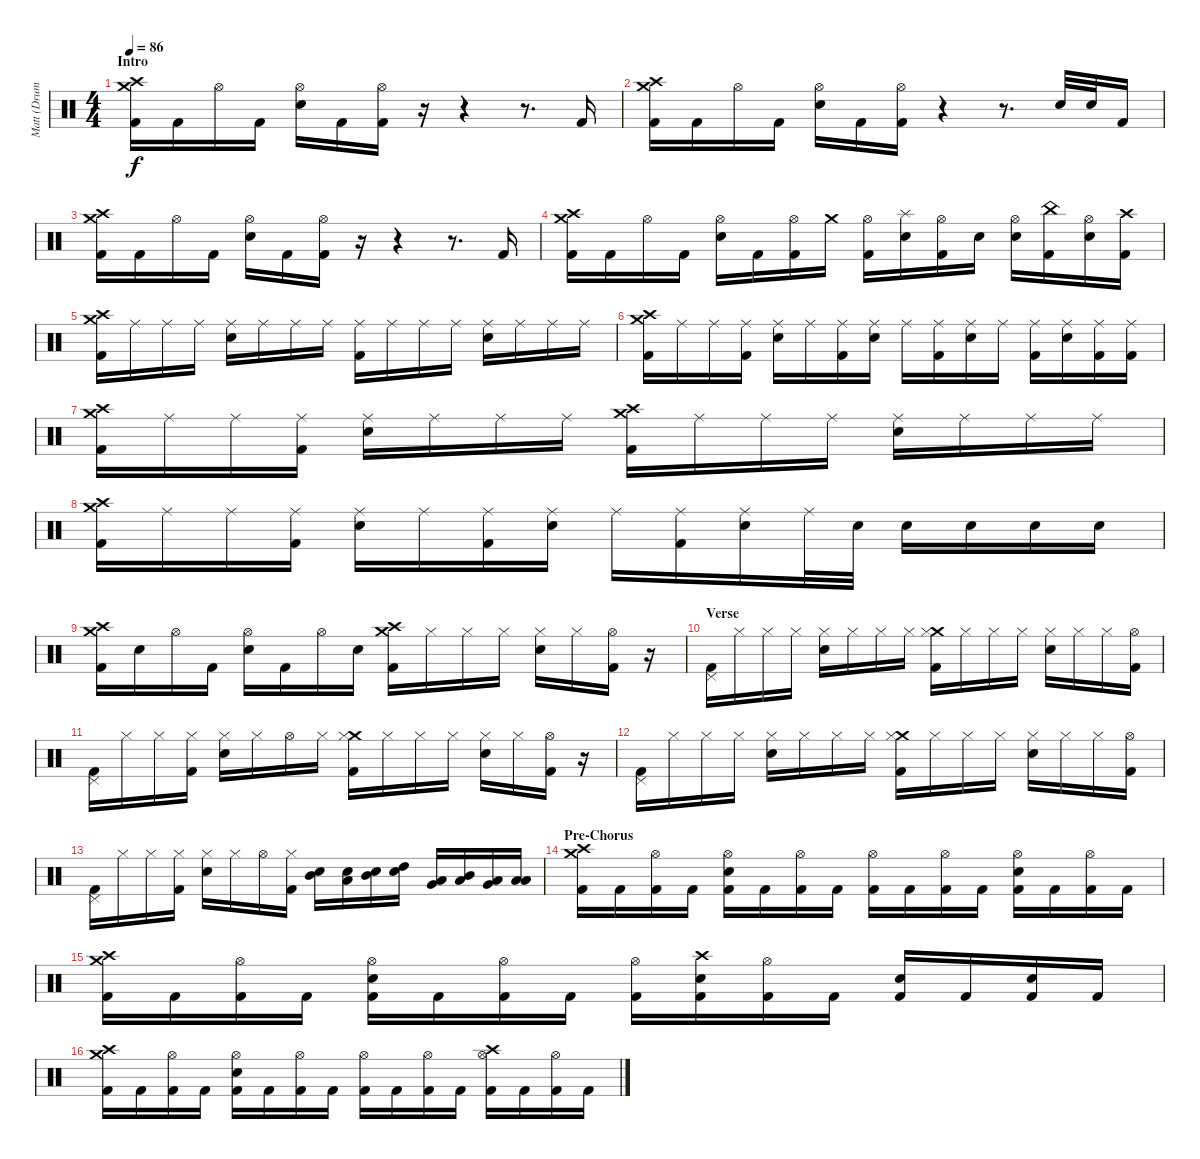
\track ("Matt (Drums)" "Matt (Drum") {instrument percussion}
\staff {score}
\articulation defaults
\ts (4 4)
\section ("" "Intro")
\tempo 86
\clef neutral
\ks c
("Crash medium (hit)" "Crash high (hit)" "Kick (hit) 2").16{dy f} "Kick (hit) 2".16 "Hi-Hat (open)".16 "Kick (hit) 2".16 ("Hi-Hat (open)" "Snare (hit) 2").16 "Kick (hit) 2".16 ("Hi-Hat (open)" "Kick (hit) 2").16 r.16 r.4 r.8{d} "Kick (hit) 2".16 |
("Crash medium (hit)" "Crash high (hit)" "Kick (hit) 2").16 "Kick (hit) 2".16 "Hi-Hat (open)".16 "Kick (hit) 2".16 ("Hi-Hat (open)" "Snare (hit) 2").16 "Kick (hit) 2".16 ("Hi-Hat (open)" "Kick (hit) 2").16 r.4 r.8{d} "Snare (hit) 2".32 "Snare (hit) 2".32 "Kick (hit) 2".16 |
("Crash medium (hit)" "Crash high (hit)" "Kick (hit) 2").16 "Kick (hit) 2".16 "Hi-Hat (open)".16 "Kick (hit) 2".16 ("Hi-Hat (open)" "Snare (hit) 2").16 "Kick (hit) 2".16 ("Hi-Hat (open)" "Kick (hit) 2").16 r.16 r.4 r.8{d} "Kick (hit) 2".16 |
("Crash medium (hit)" "Crash high (hit)" "Kick (hit) 2").16 "Kick (hit) 2".16 "Hi-Hat (open)".16 "Kick (hit) 2".16 ("Hi-Hat (open)" "Snare (hit) 2").16 "Kick (hit) 2".16 ("Hi-Hat (open)" "Kick (hit) 2").16 "Crash medium (hit)".16 ("Hi-Hat (open)" "Kick (hit) 2").16 ("Splash (hit)" "Snare (hit) 2").16 ("Hi-Hat (open)" "Kick (hit) 2").16 "Snare (hit) 2".16 ("Hi-Hat (open)" "Snare (hit) 2").16 ("China (hit)" "Kick (hit) 2").16 ("Hi-Hat (open)" "Snare (hit) 2").16 ("Crash high (hit)" "Kick (hit) 2").16 |
("Crash medium (hit)" "Crash high (hit)" "Kick (hit) 2").16 "Ride (middle)".16 "Ride (middle)".16 "Ride (middle)".16 ("Ride (middle)" "Snare (hit) 2").16 "Ride (middle)".16 "Ride (middle)".16 "Ride (middle)".16 ("Ride (middle)" "Kick (hit) 2").16 "Ride (middle)".16 "Ride (middle)".16 "Ride (middle)".16 ("Ride (middle)" "Snare (hit) 2").16 "Ride (middle)".16 "Ride (middle)".16 "Ride (middle)".16 |
("Crash medium (hit)" "Crash high (hit)" "Kick (hit) 2").16 "Ride (middle)".16 "Ride (middle)".16 ("Ride (middle)" "Kick (hit) 2").16 ("Ride (middle)" "Snare (hit) 2").16 "Ride (middle)".16 ("Ride (middle)" "Kick (hit) 2").16 ("Ride (middle)" "Snare (hit) 2").16 "Ride (middle)".16 ("Ride (middle)" "Kick (hit) 2").16 ("Ride (middle)" "Snare (hit) 2").16 "Ride (middle)".16 ("Ride (middle)" "Kick (hit) 2").16 ("Ride (middle)" "Snare (hit) 2").16 ("Ride (middle)" "Kick (hit) 2").16 ("Ride (middle)" "Kick (hit) 2").16 |
("Crash medium (hit)" "Crash high (hit)" "Kick (hit) 2").16 "Ride (middle)".16 "Ride (middle)".16 ("Ride (middle)" "Kick (hit) 2").16 ("Ride (middle)" "Snare (hit) 2").16 "Ride (middle)".16 "Ride (middle)".16 "Ride (middle)".16 ("Crash medium (hit)" "Crash high (hit)" "Kick (hit) 2").16 "Ride (middle)".16 "Ride (middle)".16 "Ride (middle)".16 ("Ride (middle)" "Snare (hit) 2").16 "Ride (middle)".16 "Ride (middle)".16 "Ride (middle)".16 |
("Crash medium (hit)" "Crash high (hit)" "Kick (hit) 2").16 "Ride (middle)".16 "Ride (middle)".16 ("Ride (middle)" "Kick (hit) 2").16 ("Ride (middle)" "Snare (hit) 2").16 "Ride (middle)".16 ("Ride (middle)" "Kick (hit) 2").16 ("Ride (middle)" "Snare (hit) 2").16 "Ride (middle)".16 ("Ride (middle)" "Kick (hit) 2").16 ("Ride (middle)" "Snare (hit) 2").16 "Ride (middle)".32 "Snare (hit) 2".32 "Snare (hit) 2".16 "Snare (hit) 2".16 "Snare (hit) 2".16 "Snare (hit) 2".16 |
("Crash medium (hit)" "Crash high (hit)" "Kick (hit) 2").16 "Snare (hit) 2".16 "Hi-Hat (open)".16 "Kick (hit) 2".16 ("Hi-Hat (open)" "Snare (hit) 2").16 "Kick (hit) 2".16 "Hi-Hat (open)".16 "Snare (hit) 2".16 ("Crash medium (hit)" "Crash high (hit)" "Kick (hit) 2").16 "Hi-Hat (closed)".16 "Hi-Hat (closed)".16 "Hi-Hat (closed)".16 ("Hi-Hat (closed)" "Snare (hit) 2").16 "Hi-Hat (closed)".16 ("Hi-Hat (open)" "Kick (hit) 2").16 r.16 |
\section ("" "Verse")
("Pedal Hi-Hat (hit)" "Kick (hit) 2").16 "Hi-Hat (closed)".16 "Hi-Hat (closed)".16 "Hi-Hat (closed)".16 ("Hi-Hat (closed)" "Snare (hit) 2").16 "Hi-Hat (closed)".16 "Hi-Hat (closed)".16 "Hi-Hat (closed)".16 ("Crash medium (hit)" "Hi-Hat (closed)" "Kick (hit) 2").16 "Hi-Hat (closed)".16 "Hi-Hat (closed)".16 "Hi-Hat (closed)".16 ("Hi-Hat (closed)" "Snare (hit) 2").16 "Hi-Hat (closed)".16 "Hi-Hat (closed)".16 ("Hi-Hat (open)" "Kick (hit) 2").16 |
("Pedal Hi-Hat (hit)" "Kick (hit) 2").16 "Hi-Hat (closed)".16 "Hi-Hat (closed)".16 ("Hi-Hat (closed)" "Kick (hit) 2").16 ("Hi-Hat (closed)" "Snare (hit) 2").16 "Hi-Hat (closed)".16 "Hi-Hat (open)".16 "Hi-Hat (closed)".16 ("Crash medium (hit)" "Hi-Hat (closed)" "Kick (hit) 2").16 "Hi-Hat (closed)".16 "Hi-Hat (closed)".16 "Hi-Hat (closed)".16 ("Hi-Hat (closed)" "Snare (hit) 2").16 "Hi-Hat (closed)".16 ("Hi-Hat (open)" "Kick (hit) 2").16 r.16 |
("Pedal Hi-Hat (hit)" "Kick (hit) 2").16 "Hi-Hat (closed)".16 "Hi-Hat (closed)".16 "Hi-Hat (closed)".16 ("Hi-Hat (closed)" "Snare (hit) 2").16 "Hi-Hat (closed)".16 "Hi-Hat (closed)".16 "Hi-Hat (closed)".16 ("Crash medium (hit)" "Hi-Hat (closed)" "Kick (hit) 2").16 "Hi-Hat (closed)".16 "Hi-Hat (closed)".16 "Hi-Hat (closed)".16 ("Hi-Hat (closed)" "Snare (hit) 2").16 "Hi-Hat (closed)".16 "Hi-Hat (closed)".16 ("Hi-Hat (open)" "Kick (hit) 2").16 |
("Pedal Hi-Hat (hit)" "Kick (hit) 2").16 "Hi-Hat (closed)".16 "Hi-Hat (closed)".16 ("Hi-Hat (closed)" "Kick (hit) 2").16 ("Hi-Hat (closed)" "Snare (hit) 2").16 "Hi-Hat (closed)".16 "Hi-Hat (open)".16 ("Hi-Hat (closed)" "Kick (hit) 2").16 ("Mid Tom (hit)" "Snare (hit) 2").16 ("Low Tom (hit)" "Snare (hit) 2").16 ("Mid Tom (hit)" "Snare (hit) 2").16 ("High Tom (hit)" "Snare (hit) 2").16 ("Low Tom (hit)" "Very Low Tom (hit)").16 ("Mid Tom (hit)" "Low Tom (hit)").16 ("Very Low Tom (hit)" "Low Floor Tom (hit)").16 ("Low Floor Tom (hit)" "Low Floor Tom (hit)").16 |
\section ("" "Pre-Chorus")
("Crash medium (hit)" "Crash high (hit)" "Kick (hit) 2").16 "Kick (hit) 2".16 ("Hi-Hat (open)" "Kick (hit) 2").16 "Kick (hit) 2".16 ("Hi-Hat (open)" "Snare (hit) 2" "Kick (hit) 2").16 "Kick (hit) 2".16 ("Hi-Hat (open)" "Kick (hit) 2").16 "Kick (hit) 2".16 ("Hi-Hat (open)" "Kick (hit) 2").16 "Kick (hit) 2".16 ("Hi-Hat (open)" "Kick (hit) 2").16 "Kick (hit) 2".16 ("Hi-Hat (open)" "Snare (hit) 2" "Kick (hit) 2").16 "Kick (hit) 2".16 ("Hi-Hat (open)" "Kick (hit) 2").16 "Kick (hit) 2".16 |
("Crash medium (hit)" "Crash high (hit)" "Kick (hit) 2").16 "Kick (hit) 2".16 ("Hi-Hat (open)" "Kick (hit) 2").16 "Kick (hit) 2".16 ("Hi-Hat (open)" "Snare (hit) 2" "Kick (hit) 2").16 "Kick (hit) 2".16 ("Hi-Hat (open)" "Kick (hit) 2").16 "Kick (hit) 2".16 ("Hi-Hat (open)" "Kick (hit) 2").16 ("Crash high (hit)" "Snare (hit) 2" "Kick (hit) 2").16 ("Hi-Hat (open)" "Kick (hit) 2").16 "Kick (hit) 2".16 ("Snare (hit) 2" "Kick (hit) 2").16 "Kick (hit) 2".16 ("Snare (hit) 2" "Kick (hit) 2").16 "Kick (hit) 2".16 |
("Crash medium (hit)" "Crash high (hit)" "Kick (hit) 2").16 "Kick (hit) 2".16 ("Hi-Hat (open)" "Kick (hit) 2").16 "Kick (hit) 2".16 ("Hi-Hat (open)" "Snare (hit) 2" "Kick (hit) 2").16 "Kick (hit) 2".16 ("Hi-Hat (open)" "Kick (hit) 2").16 "Kick (hit) 2".16 ("Hi-Hat (open)" "Kick (hit) 2").16 "Kick (hit) 2".16 ("Hi-Hat (open)" "Kick (hit) 2").16 "Kick (hit) 2".16 ("Crash high (hit)" "Hi-Hat (open)" "Kick (hit) 2").16 "Kick (hit) 2".16 ("Hi-Hat (open)" "Kick (hit) 2").16 "Kick (hit) 2".16
